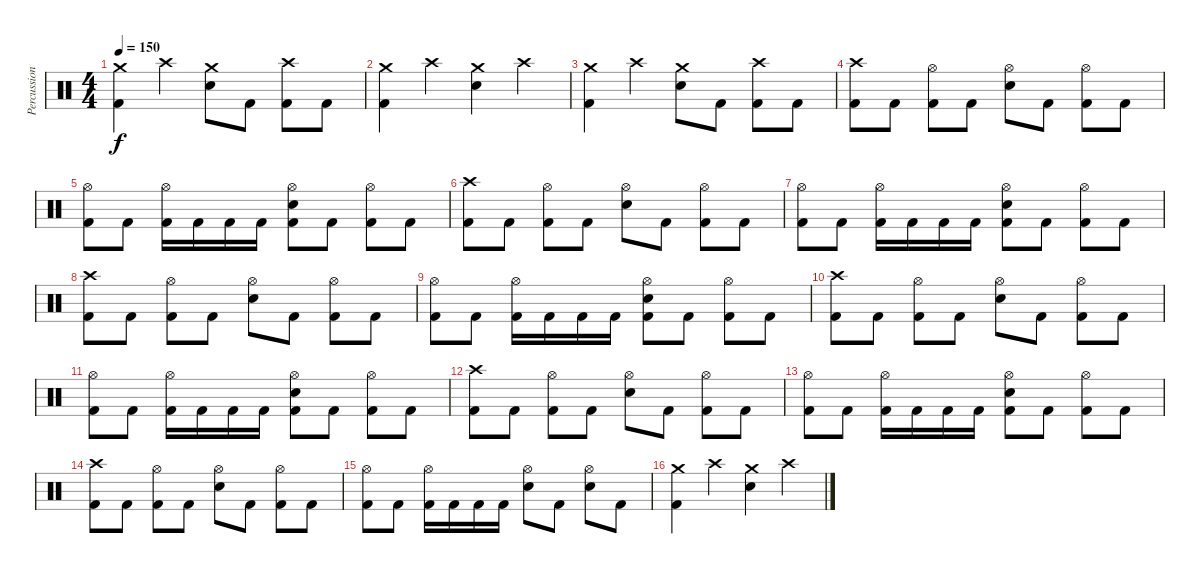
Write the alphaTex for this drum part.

\track ("Percussion" "Percussion") {instrument percussion}
\staff {score}
\articulation defaults
\ts (4 4)
\tempo 150
\clef neutral
\ks c
("Crash medium (hit)" "Kick (hit) 2").4{dy f} "Crash high (hit)".4 ("Crash medium (hit)" "Electric Snare (hit)").8 "Kick (hit) 2".8 ("Crash high (hit)" "Kick (hit) 2").8 "Kick (hit) 2".8 |
("Crash medium (hit)" "Kick (hit) 2").4 "Crash high (hit)".4 ("Crash medium (hit)" "Electric Snare (hit)").4 "Crash high (hit)".4 |
("Crash medium (hit)" "Kick (hit) 2").4 "Crash high (hit)".4 ("Crash medium (hit)" "Electric Snare (hit)").8 "Kick (hit) 2".8 ("Crash high (hit)" "Kick (hit) 2").8 "Kick (hit) 2".8 |
("Crash high (hit)" "Kick (hit) 2").8 "Kick (hit) 2".8 ("Hi-Hat (open)" "Kick (hit) 2").8 "Kick (hit) 2".8 ("Hi-Hat (open)" "Electric Snare (hit)").8 "Kick (hit) 2".8 ("Hi-Hat (open)" "Kick (hit) 2").8 "Kick (hit) 2".8 |
("Hi-Hat (open)" "Kick (hit) 2").8 "Kick (hit) 2".8 ("Hi-Hat (open)" "Kick (hit) 2").16 "Kick (hit) 2".16 "Kick (hit) 2".16 "Kick (hit) 2".16 ("Hi-Hat (open)" "Electric Snare (hit)" "Kick (hit) 2").8 "Kick (hit) 2".8 ("Hi-Hat (open)" "Kick (hit) 2").8 "Kick (hit) 2".8 |
("Crash high (hit)" "Kick (hit) 2").8 "Kick (hit) 2".8 ("Hi-Hat (open)" "Kick (hit) 2").8 "Kick (hit) 2".8 ("Hi-Hat (open)" "Electric Snare (hit)").8 "Kick (hit) 2".8 ("Hi-Hat (open)" "Kick (hit) 2").8 "Kick (hit) 2".8 |
("Hi-Hat (open)" "Kick (hit) 2").8 "Kick (hit) 2".8 ("Hi-Hat (open)" "Kick (hit) 2").16 "Kick (hit) 2".16 "Kick (hit) 2".16 "Kick (hit) 2".16 ("Hi-Hat (open)" "Electric Snare (hit)" "Kick (hit) 2").8 "Kick (hit) 2".8 ("Hi-Hat (open)" "Kick (hit) 2").8 "Kick (hit) 2".8 |
("Crash high (hit)" "Kick (hit) 2").8 "Kick (hit) 2".8 ("Hi-Hat (open)" "Kick (hit) 2").8 "Kick (hit) 2".8 ("Hi-Hat (open)" "Electric Snare (hit)").8 "Kick (hit) 2".8 ("Hi-Hat (open)" "Kick (hit) 2").8 "Kick (hit) 2".8 |
("Hi-Hat (open)" "Kick (hit) 2").8 "Kick (hit) 2".8 ("Hi-Hat (open)" "Kick (hit) 2").16 "Kick (hit) 2".16 "Kick (hit) 2".16 "Kick (hit) 2".16 ("Hi-Hat (open)" "Electric Snare (hit)" "Kick (hit) 2").8 "Kick (hit) 2".8 ("Hi-Hat (open)" "Kick (hit) 2").8 "Kick (hit) 2".8 |
("Crash high (hit)" "Kick (hit) 2").8 "Kick (hit) 2".8 ("Hi-Hat (open)" "Kick (hit) 2").8 "Kick (hit) 2".8 ("Hi-Hat (open)" "Electric Snare (hit)").8 "Kick (hit) 2".8 ("Hi-Hat (open)" "Kick (hit) 2").8 "Kick (hit) 2".8 |
("Hi-Hat (open)" "Kick (hit) 2").8 "Kick (hit) 2".8 ("Hi-Hat (open)" "Kick (hit) 2").16 "Kick (hit) 2".16 "Kick (hit) 2".16 "Kick (hit) 2".16 ("Hi-Hat (open)" "Electric Snare (hit)" "Kick (hit) 2").8 "Kick (hit) 2".8 ("Hi-Hat (open)" "Kick (hit) 2").8 "Kick (hit) 2".8 |
("Crash high (hit)" "Kick (hit) 2").8 "Kick (hit) 2".8 ("Hi-Hat (open)" "Kick (hit) 2").8 "Kick (hit) 2".8 ("Hi-Hat (open)" "Electric Snare (hit)").8 "Kick (hit) 2".8 ("Hi-Hat (open)" "Kick (hit) 2").8 "Kick (hit) 2".8 |
("Hi-Hat (open)" "Kick (hit) 2").8 "Kick (hit) 2".8 ("Hi-Hat (open)" "Kick (hit) 2").16 "Kick (hit) 2".16 "Kick (hit) 2".16 "Kick (hit) 2".16 ("Hi-Hat (open)" "Electric Snare (hit)" "Kick (hit) 2").8 "Kick (hit) 2".8 ("Hi-Hat (open)" "Kick (hit) 2").8 "Kick (hit) 2".8 |
("Crash high (hit)" "Kick (hit) 2").8 "Kick (hit) 2".8 ("Hi-Hat (open)" "Kick (hit) 2").8 "Kick (hit) 2".8 ("Hi-Hat (open)" "Electric Snare (hit)").8 "Kick (hit) 2".8 ("Hi-Hat (open)" "Kick (hit) 2").8 "Kick (hit) 2".8 |
("Hi-Hat (open)" "Kick (hit) 2").8 "Kick (hit) 2".8 ("Hi-Hat (open)" "Kick (hit) 2").16 "Kick (hit) 2".16 "Kick (hit) 2".16 "Kick (hit) 2".16 ("Hi-Hat (open)" "Electric Snare (hit)").8 "Kick (hit) 2".8 ("Hi-Hat (open)" "Electric Snare (hit)").8 "Kick (hit) 2".8 |
("Crash medium (hit)" "Kick (hit) 2").4 "Crash high (hit)".4 ("Crash medium (hit)" "Electric Snare (hit)").4 "Crash high (hit)".4
